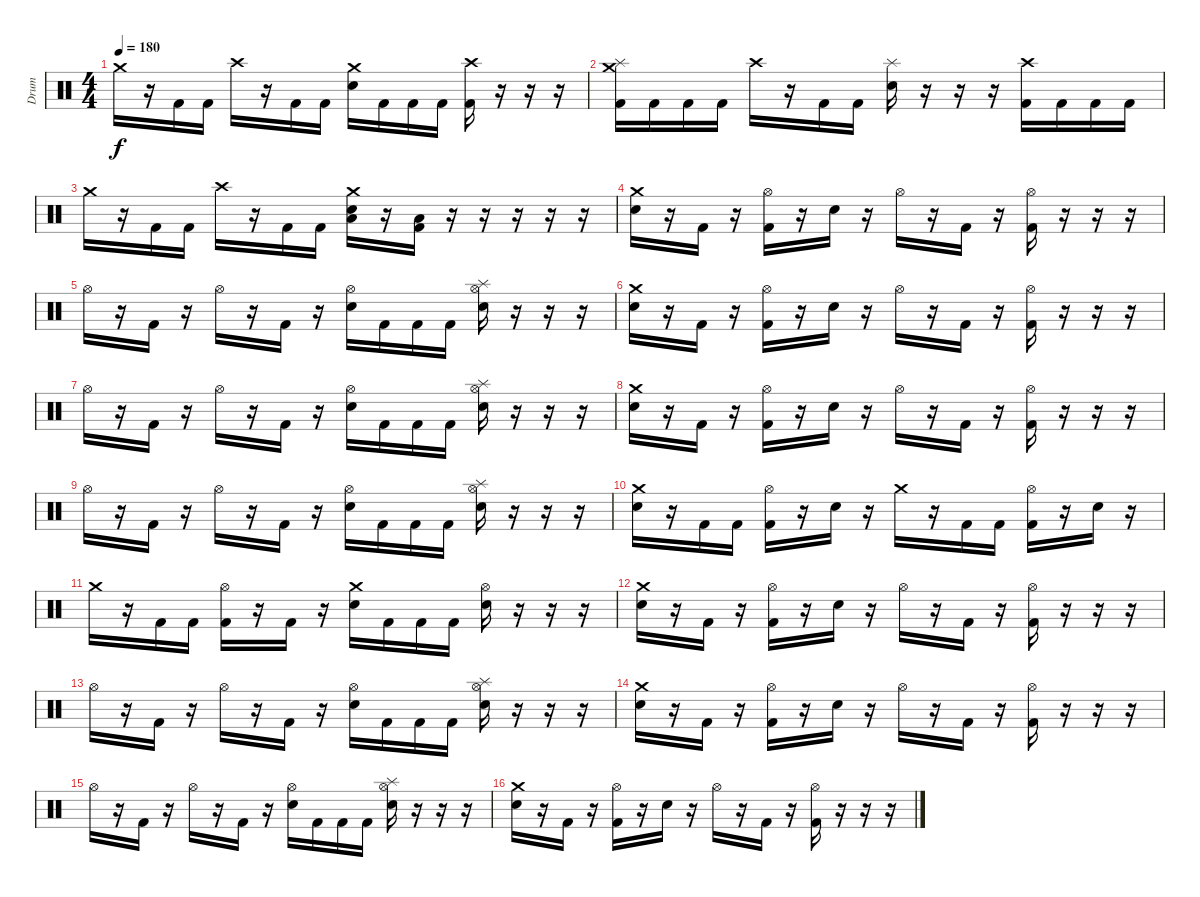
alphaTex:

\track ("Drum" "Drum") {instrument percussion}
\staff {score}
\articulation defaults
\ts (4 4)
\tempo 180
\clef neutral
\ks c "Crash medium (hit)".16{dy f}
r.16 "Kick (hit) 2".16 "Kick (hit) 2".16 "Crash high (hit)".16 r.16 "Kick (hit) 2".16 "Kick (hit) 2".16 ("Crash medium (hit)" "Electric Snare (hit)").16 "Kick (hit) 2".16 "Kick (hit) 2".16 "Kick (hit) 2".16 ("Crash high (hit)" "Kick (hit) 2").16 r.16 r.16 r.16 |
("Splash (hit)" "Crash medium (hit)" "Kick (hit) 2").16 "Kick (hit) 2".16 "Kick (hit) 2".16 "Kick (hit) 2".16 "Crash high (hit)".16 r.16 "Kick (hit) 2".16 "Kick (hit) 2".16 ("Splash (hit)" "Electric Snare (hit)").16 r.16 r.16 r.16 ("Crash high (hit)" "Kick (hit) 2").16 "Kick (hit) 2".16 "Kick (hit) 2".16 "Kick (hit) 2".16 |
"Crash medium (hit)".16 r.16 "Kick (hit) 2".16 "Kick (hit) 2".16 "Crash high (hit)".16 r.16 "Kick (hit) 2".16 "Kick (hit) 2".16 ("Crash medium (hit)" "Electric Snare (hit)" "Low Floor Tom (hit)").16 r.16 ("Low Floor Tom (hit)" "Kick (hit) 2").16 r.16 r.16 r.16 r.16 r.16 |
("Crash medium (hit)" "Electric Snare (hit)").16 r.16 "Kick (hit) 2".16 r.16 ("Hi-Hat (open)" "Kick (hit) 2").16 r.16 "Electric Snare (hit)".16 r.16 "Hi-Hat (open)".16 r.16 "Kick (hit) 2".16 r.16 ("Hi-Hat (open)" "Kick (hit) 2").16 r.16 r.16 r.16 |
"Hi-Hat (open)".16 r.16 "Kick (hit) 2".16 r.16 "Hi-Hat (open)".16 r.16 "Kick (hit) 2".16 r.16 ("Hi-Hat (open)" "Electric Snare (hit)").16 "Kick (hit) 2".16 "Kick (hit) 2".16 "Kick (hit) 2".16 ("Hi-Hat (open)" "Splash (hit)" "Electric Snare (hit)").16 r.16 r.16 r.16 |
("Crash medium (hit)" "Electric Snare (hit)").16 r.16 "Kick (hit) 2".16 r.16 ("Hi-Hat (open)" "Kick (hit) 2").16 r.16 "Electric Snare (hit)".16 r.16 "Hi-Hat (open)".16 r.16 "Kick (hit) 2".16 r.16 ("Hi-Hat (open)" "Kick (hit) 2").16 r.16 r.16 r.16 |
"Hi-Hat (open)".16 r.16 "Kick (hit) 2".16 r.16 "Hi-Hat (open)".16 r.16 "Kick (hit) 2".16 r.16 ("Hi-Hat (open)" "Electric Snare (hit)").16 "Kick (hit) 2".16 "Kick (hit) 2".16 "Kick (hit) 2".16 ("Hi-Hat (open)" "Splash (hit)" "Electric Snare (hit)").16 r.16 r.16 r.16 |
("Crash medium (hit)" "Electric Snare (hit)").16 r.16 "Kick (hit) 2".16 r.16 ("Hi-Hat (open)" "Kick (hit) 2").16 r.16 "Electric Snare (hit)".16 r.16 "Hi-Hat (open)".16 r.16 "Kick (hit) 2".16 r.16 ("Hi-Hat (open)" "Kick (hit) 2").16 r.16 r.16 r.16 |
"Hi-Hat (open)".16 r.16 "Kick (hit) 2".16 r.16 "Hi-Hat (open)".16 r.16 "Kick (hit) 2".16 r.16 ("Hi-Hat (open)" "Electric Snare (hit)").16 "Kick (hit) 2".16 "Kick (hit) 2".16 "Kick (hit) 2".16 ("Hi-Hat (open)" "Splash (hit)" "Electric Snare (hit)").16 r.16 r.16 r.16 |
("Crash medium (hit)" "Electric Snare (hit)").16 r.16 "Kick (hit) 2".16 "Kick (hit) 2".16 ("Hi-Hat (open)" "Kick (hit) 2").16 r.16 "Electric Snare (hit)".16 r.16 "Crash medium (hit)".16 r.16 "Kick (hit) 2".16 "Kick (hit) 2".16 ("Hi-Hat (open)" "Kick (hit) 2").16 r.16 "Electric Snare (hit)".16 r.16 |
"Crash medium (hit)".16 r.16 "Kick (hit) 2".16 "Kick (hit) 2".16 ("Hi-Hat (open)" "Kick (hit) 2").16 r.16 "Kick (hit) 2".16 r.16 ("Crash medium (hit)" "Electric Snare (hit)").16 "Kick (hit) 2".16 "Kick (hit) 2".16 "Kick (hit) 2".16 ("Hi-Hat (open)" "Electric Snare (hit)").16 r.16 r.16 r.16 |
("Crash medium (hit)" "Electric Snare (hit)").16 r.16 "Kick (hit) 2".16 r.16 ("Hi-Hat (open)" "Kick (hit) 2").16 r.16 "Electric Snare (hit)".16 r.16 "Hi-Hat (open)".16 r.16 "Kick (hit) 2".16 r.16 ("Hi-Hat (open)" "Kick (hit) 2").16 r.16 r.16 r.16 |
"Hi-Hat (open)".16 r.16 "Kick (hit) 2".16 r.16 "Hi-Hat (open)".16 r.16 "Kick (hit) 2".16 r.16 ("Hi-Hat (open)" "Electric Snare (hit)").16 "Kick (hit) 2".16 "Kick (hit) 2".16 "Kick (hit) 2".16 ("Hi-Hat (open)" "Splash (hit)" "Electric Snare (hit)").16 r.16 r.16 r.16 |
("Crash medium (hit)" "Electric Snare (hit)").16 r.16 "Kick (hit) 2".16 r.16 ("Hi-Hat (open)" "Kick (hit) 2").16 r.16 "Electric Snare (hit)".16 r.16 "Hi-Hat (open)".16 r.16 "Kick (hit) 2".16 r.16 ("Hi-Hat (open)" "Kick (hit) 2").16 r.16 r.16 r.16 |
"Hi-Hat (open)".16 r.16 "Kick (hit) 2".16 r.16 "Hi-Hat (open)".16 r.16 "Kick (hit) 2".16 r.16 ("Hi-Hat (open)" "Electric Snare (hit)").16 "Kick (hit) 2".16 "Kick (hit) 2".16 "Kick (hit) 2".16 ("Hi-Hat (open)" "Splash (hit)" "Electric Snare (hit)").16 r.16 r.16 r.16 |
("Crash medium (hit)" "Electric Snare (hit)").16 r.16 "Kick (hit) 2".16 r.16 ("Hi-Hat (open)" "Kick (hit) 2").16 r.16 "Electric Snare (hit)".16 r.16 "Hi-Hat (open)".16 r.16 "Kick (hit) 2".16 r.16 ("Hi-Hat (open)" "Kick (hit) 2").16 r.16 r.16 r.16
